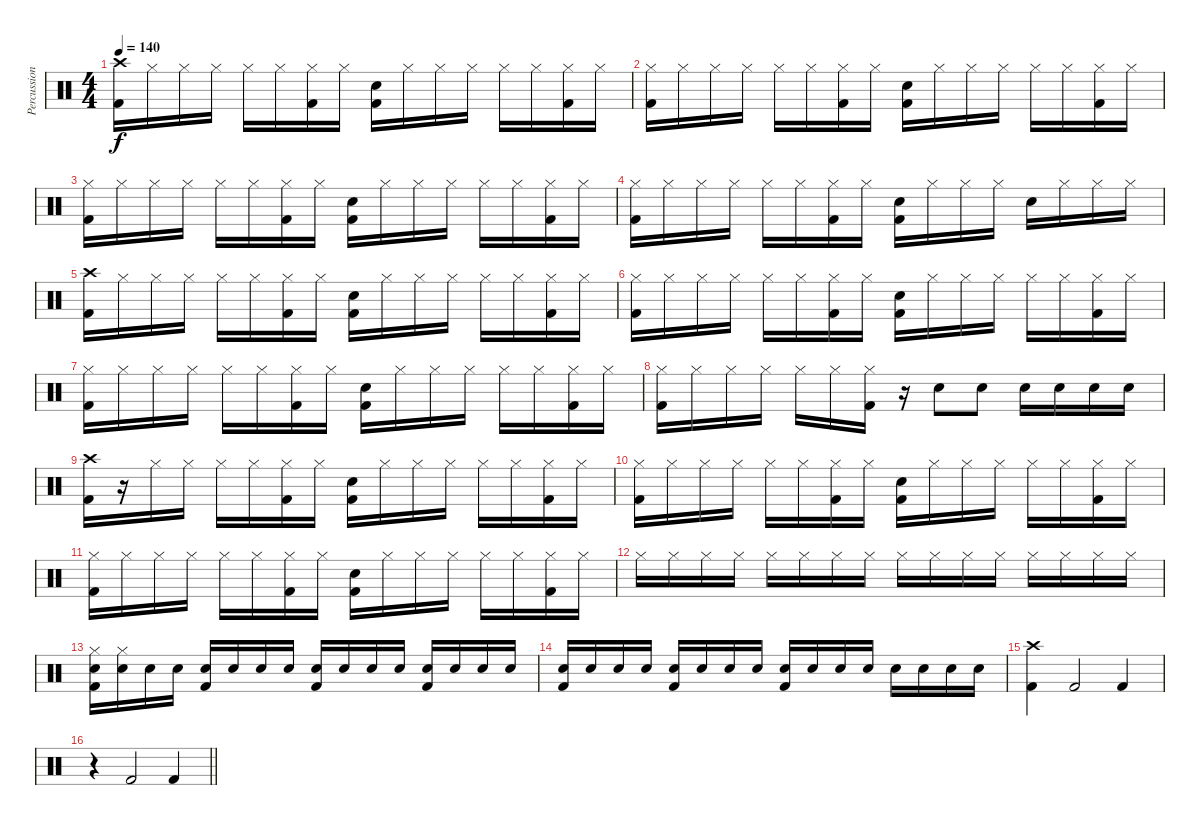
\track ("Percussion" "Percussion") {instrument percussion}
\staff {score}
\articulation defaults
\ts (4 4)
\tempo 140
\clef neutral
\ks c
("Crash high (hit)" "Kick (hit) 2").16{dy f} "Hi-Hat (closed)".16 "Hi-Hat (closed)".16 "Hi-Hat (closed)".16 "Hi-Hat (closed)".16 "Hi-Hat (closed)".16 ("Hi-Hat (closed)" "Kick (hit) 2").16 "Hi-Hat (closed)".16 ("Electric Snare (hit)" "Kick (hit) 2").16 "Hi-Hat (closed)".16 "Hi-Hat (closed)".16 "Hi-Hat (closed)".16 "Hi-Hat (closed)".16 "Hi-Hat (closed)".16 ("Hi-Hat (closed)" "Kick (hit) 2").16 "Hi-Hat (closed)".16 |
("Hi-Hat (closed)" "Kick (hit) 2").16 "Hi-Hat (closed)".16 "Hi-Hat (closed)".16 "Hi-Hat (closed)".16 "Hi-Hat (closed)".16 "Hi-Hat (closed)".16 ("Hi-Hat (closed)" "Kick (hit) 2").16 "Hi-Hat (closed)".16 ("Electric Snare (hit)" "Kick (hit) 2").16 "Hi-Hat (closed)".16 "Hi-Hat (closed)".16 "Hi-Hat (closed)".16 "Hi-Hat (closed)".16 "Hi-Hat (closed)".16 ("Hi-Hat (closed)" "Kick (hit) 2").16 "Hi-Hat (closed)".16 |
("Hi-Hat (closed)" "Kick (hit) 2").16 "Hi-Hat (closed)".16 "Hi-Hat (closed)".16 "Hi-Hat (closed)".16 "Hi-Hat (closed)".16 "Hi-Hat (closed)".16 ("Hi-Hat (closed)" "Kick (hit) 2").16 "Hi-Hat (closed)".16 ("Electric Snare (hit)" "Kick (hit) 2").16 "Hi-Hat (closed)".16 "Hi-Hat (closed)".16 "Hi-Hat (closed)".16 "Hi-Hat (closed)".16 "Hi-Hat (closed)".16 ("Hi-Hat (closed)" "Kick (hit) 2").16 "Hi-Hat (closed)".16 |
("Hi-Hat (closed)" "Kick (hit) 2").16 "Hi-Hat (closed)".16 "Hi-Hat (closed)".16 "Hi-Hat (closed)".16 "Hi-Hat (closed)".16 "Hi-Hat (closed)".16 ("Hi-Hat (closed)" "Kick (hit) 2").16 "Hi-Hat (closed)".16 ("Electric Snare (hit)" "Kick (hit) 2").16 "Hi-Hat (closed)".16 "Hi-Hat (closed)".16 "Hi-Hat (closed)".16 "Electric Snare (hit)".16 "Hi-Hat (closed)".16 "Hi-Hat (closed)".16 "Hi-Hat (closed)".16 |
("Crash high (hit)" "Kick (hit) 2").16 "Hi-Hat (closed)".16 "Hi-Hat (closed)".16 "Hi-Hat (closed)".16 "Hi-Hat (closed)".16 "Hi-Hat (closed)".16 ("Hi-Hat (closed)" "Kick (hit) 2").16 "Hi-Hat (closed)".16 ("Electric Snare (hit)" "Kick (hit) 2").16 "Hi-Hat (closed)".16 "Hi-Hat (closed)".16 "Hi-Hat (closed)".16 "Hi-Hat (closed)".16 "Hi-Hat (closed)".16 ("Hi-Hat (closed)" "Kick (hit) 2").16 "Hi-Hat (closed)".16 |
("Hi-Hat (closed)" "Kick (hit) 2").16 "Hi-Hat (closed)".16 "Hi-Hat (closed)".16 "Hi-Hat (closed)".16 "Hi-Hat (closed)".16 "Hi-Hat (closed)".16 ("Hi-Hat (closed)" "Kick (hit) 2").16 "Hi-Hat (closed)".16 ("Electric Snare (hit)" "Kick (hit) 2").16 "Hi-Hat (closed)".16 "Hi-Hat (closed)".16 "Hi-Hat (closed)".16 "Hi-Hat (closed)".16 "Hi-Hat (closed)".16 ("Hi-Hat (closed)" "Kick (hit) 2").16 "Hi-Hat (closed)".16 |
("Hi-Hat (closed)" "Kick (hit) 2").16 "Hi-Hat (closed)".16 "Hi-Hat (closed)".16 "Hi-Hat (closed)".16 "Hi-Hat (closed)".16 "Hi-Hat (closed)".16 ("Hi-Hat (closed)" "Kick (hit) 2").16 "Hi-Hat (closed)".16 ("Electric Snare (hit)" "Kick (hit) 2").16 "Hi-Hat (closed)".16 "Hi-Hat (closed)".16 "Hi-Hat (closed)".16 "Hi-Hat (closed)".16 "Hi-Hat (closed)".16 ("Hi-Hat (closed)" "Kick (hit) 2").16 "Hi-Hat (closed)".16 |
("Hi-Hat (closed)" "Kick (hit) 2").16 "Hi-Hat (closed)".16 "Hi-Hat (closed)".16 "Hi-Hat (closed)".16 "Hi-Hat (closed)".16 "Hi-Hat (closed)".16 ("Hi-Hat (closed)" "Kick (hit) 2").16 r.16 "Electric Snare (hit)".8 "Electric Snare (hit)".8 "Electric Snare (hit)".16 "Electric Snare (hit)".16 "Electric Snare (hit)".16 "Electric Snare (hit)".16 |
("Crash high (hit)" "Kick (hit) 2").16 r.16 "Hi-Hat (closed)".16 "Hi-Hat (closed)".16 "Hi-Hat (closed)".16 "Hi-Hat (closed)".16 ("Hi-Hat (closed)" "Kick (hit) 2").16 "Hi-Hat (closed)".16 ("Electric Snare (hit)" "Kick (hit) 2").16 "Hi-Hat (closed)".16 "Hi-Hat (closed)".16 "Hi-Hat (closed)".16 "Hi-Hat (closed)".16 "Hi-Hat (closed)".16 ("Hi-Hat (closed)" "Kick (hit) 2").16 "Hi-Hat (closed)".16 |
("Hi-Hat (closed)" "Kick (hit) 2").16 "Hi-Hat (closed)".16 "Hi-Hat (closed)".16 "Hi-Hat (closed)".16 "Hi-Hat (closed)".16 "Hi-Hat (closed)".16 ("Hi-Hat (closed)" "Kick (hit) 2").16 "Hi-Hat (closed)".16 ("Electric Snare (hit)" "Kick (hit) 2").16 "Hi-Hat (closed)".16 "Hi-Hat (closed)".16 "Hi-Hat (closed)".16 "Hi-Hat (closed)".16 "Hi-Hat (closed)".16 ("Hi-Hat (closed)" "Kick (hit) 2").16 "Hi-Hat (closed)".16 |
("Hi-Hat (closed)" "Kick (hit) 2").16 "Hi-Hat (closed)".16 "Hi-Hat (closed)".16 "Hi-Hat (closed)".16 "Hi-Hat (closed)".16 "Hi-Hat (closed)".16 ("Hi-Hat (closed)" "Kick (hit) 2").16 "Hi-Hat (closed)".16 ("Electric Snare (hit)" "Kick (hit) 2").16 "Hi-Hat (closed)".16 "Hi-Hat (closed)".16 "Hi-Hat (closed)".16 "Hi-Hat (closed)".16 "Hi-Hat (closed)".16 ("Hi-Hat (closed)" "Kick (hit) 2").16 "Hi-Hat (closed)".16 |
"Hi-Hat (closed)".16 "Hi-Hat (closed)".16 "Hi-Hat (closed)".16 "Hi-Hat (closed)".16 "Hi-Hat (closed)".16 "Hi-Hat (closed)".16 "Hi-Hat (closed)".16 "Hi-Hat (closed)".16 "Hi-Hat (closed)".16 "Hi-Hat (closed)".16 "Hi-Hat (closed)".16 "Hi-Hat (closed)".16 "Hi-Hat (closed)".16 "Hi-Hat (closed)".16 "Hi-Hat (closed)".16 "Hi-Hat (closed)".16 |
("Hi-Hat (closed)" "Electric Snare (hit)" "Kick (hit) 2").16{volume 5} ("Hi-Hat (closed)" "Electric Snare (hit)").16{volume 16} "Electric Snare (hit)".16 "Electric Snare (hit)".16 ("Electric Snare (hit)" "Kick (hit) 2").16 "Electric Snare (hit)".16 "Electric Snare (hit)".16 "Electric Snare (hit)".16 ("Electric Snare (hit)" "Kick (hit) 2").16 "Electric Snare (hit)".16 "Electric Snare (hit)".16 "Electric Snare (hit)".16 ("Electric Snare (hit)" "Kick (hit) 2").16 "Electric Snare (hit)".16 "Electric Snare (hit)".16 "Electric Snare (hit)".16 |
("Electric Snare (hit)" "Kick (hit) 2").16 "Electric Snare (hit)".16 "Electric Snare (hit)".16 "Electric Snare (hit)".16 ("Electric Snare (hit)" "Kick (hit) 2").16 "Electric Snare (hit)".16 "Electric Snare (hit)".16 "Electric Snare (hit)".16 ("Electric Snare (hit)" "Kick (hit) 2").16 "Electric Snare (hit)".16 "Electric Snare (hit)".16 "Electric Snare (hit)".16 "Electric Snare (hit)".16 "Electric Snare (hit)".16 "Electric Snare (hit)".16 "Electric Snare (hit)".16 |
("Crash high (hit)" "Kick (hit) 2").4 "Kick (hit) 2".2 "Kick (hit) 2".4 |
\barLineRight lightlight
r.4 "Kick (hit) 2".2 "Kick (hit) 2".4
